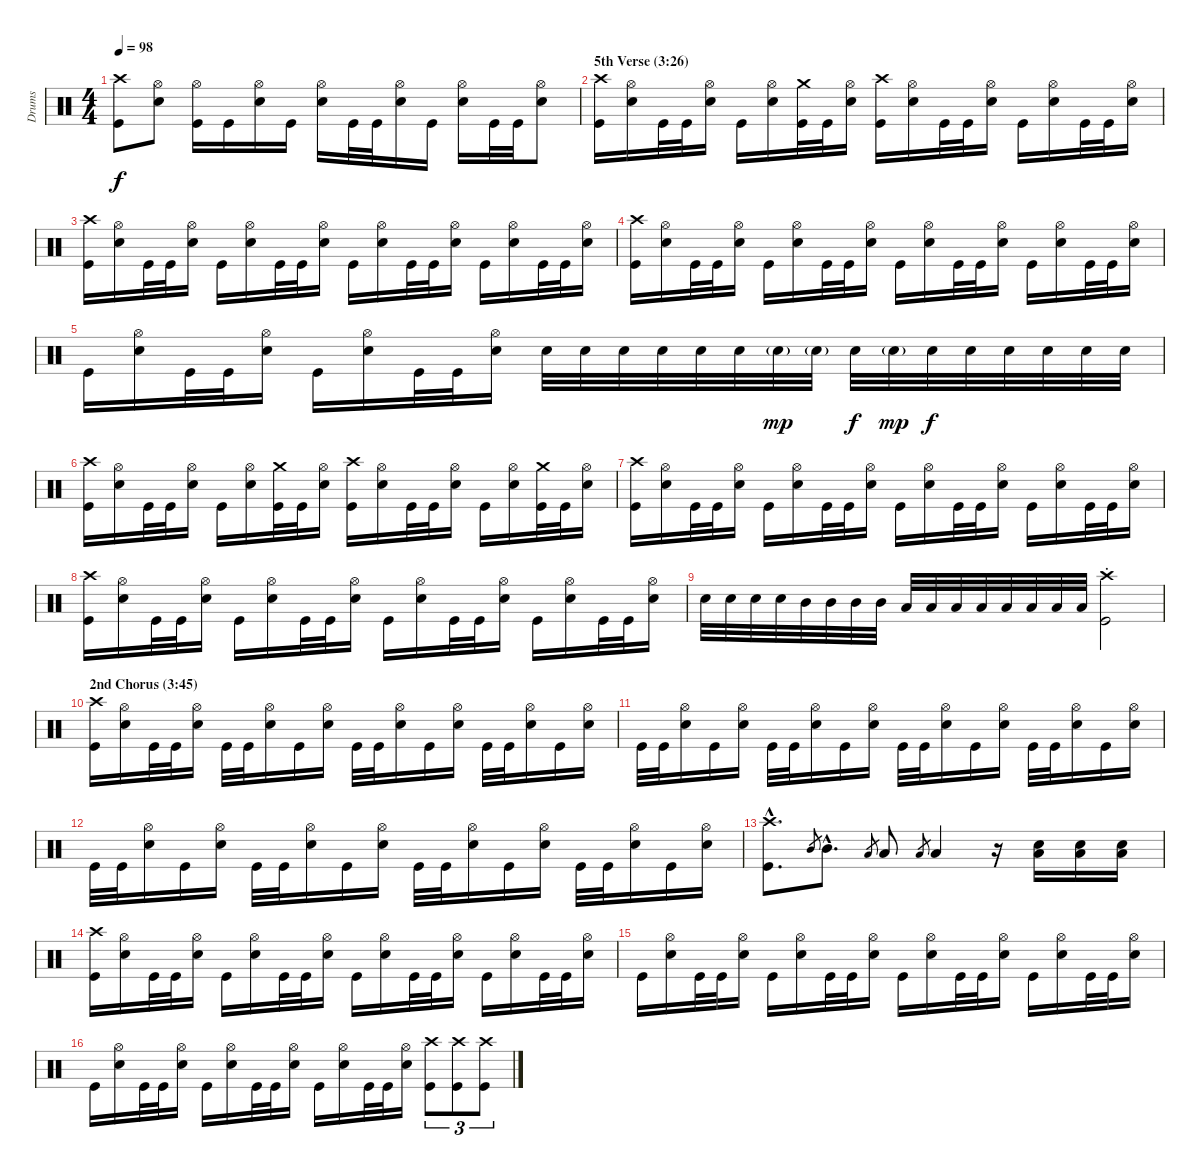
\track ("Drums" "Drums") {instrument percussion}
\staff {score}
\articulation defaults
\ts (4 4)
\tempo 98
\clef neutral
\ks c
("Crash high (hit)" "Kick (hit)").8{dy f} ("Hi-Hat (open)" "Snare (hit) 2").8 ("Hi-Hat (open)" "Kick (hit)").16 "Kick (hit)".16 ("Hi-Hat (open)" "Snare (hit) 2").16 "Kick (hit)".16 ("Hi-Hat (open)" "Snare (hit) 2").16 "Kick (hit)".32 "Kick (hit)".32 ("Hi-Hat (open)" "Snare (hit) 2").16 "Kick (hit)".16 ("Hi-Hat (open)" "Snare (hit) 2").16 "Kick (hit)".32 "Kick (hit)".32 ("Hi-Hat (open)" "Snare (hit) 2").8 |
\section ("" "5th Verse (3:26)")
("Crash high (hit)" "Kick (hit)").16 ("Hi-Hat (open)" "Snare (hit) 2").16 "Kick (hit)".32 "Kick (hit)".32 ("Hi-Hat (open)" "Snare (hit) 2").16 "Kick (hit)".16 ("Hi-Hat (open)" "Snare (hit) 2").16 ("Crash medium (hit)" "Kick (hit)").32 "Kick (hit)".32 ("Hi-Hat (open)" "Snare (hit) 2").16 ("Crash high (hit)" "Kick (hit)").16 ("Hi-Hat (open)" "Snare (hit) 2").16 "Kick (hit)".32 "Kick (hit)".32 ("Hi-Hat (open)" "Snare (hit) 2").16 "Kick (hit)".16 ("Hi-Hat (open)" "Snare (hit) 2").16 "Kick (hit)".32 "Kick (hit)".32 ("Hi-Hat (open)" "Snare (hit) 2").16 |
("Crash high (hit)" "Kick (hit)").16 ("Hi-Hat (open)" "Snare (hit) 2").16 "Kick (hit)".32 "Kick (hit)".32 ("Hi-Hat (open)" "Snare (hit) 2").16 "Kick (hit)".16 ("Hi-Hat (open)" "Snare (hit) 2").16 "Kick (hit)".32 "Kick (hit)".32 ("Hi-Hat (open)" "Snare (hit) 2").16 "Kick (hit)".16 ("Hi-Hat (open)" "Snare (hit) 2").16 "Kick (hit)".32 "Kick (hit)".32 ("Hi-Hat (open)" "Snare (hit) 2").16 "Kick (hit)".16 ("Hi-Hat (open)" "Snare (hit) 2").16 "Kick (hit)".32 "Kick (hit)".32 ("Hi-Hat (open)" "Snare (hit) 2").16 |
("Crash high (hit)" "Kick (hit)").16 ("Hi-Hat (open)" "Snare (hit) 2").16 "Kick (hit)".32 "Kick (hit)".32 ("Hi-Hat (open)" "Snare (hit) 2").16 "Kick (hit)".16 ("Hi-Hat (open)" "Snare (hit) 2").16 "Kick (hit)".32 "Kick (hit)".32 ("Hi-Hat (open)" "Snare (hit) 2").16 "Kick (hit)".16 ("Hi-Hat (open)" "Snare (hit) 2").16 "Kick (hit)".32 "Kick (hit)".32 ("Hi-Hat (open)" "Snare (hit) 2").16 "Kick (hit)".16 ("Hi-Hat (open)" "Snare (hit) 2").16 "Kick (hit)".32 "Kick (hit)".32 ("Hi-Hat (open)" "Snare (hit) 2").16 |
"Kick (hit)".16 ("Hi-Hat (open)" "Snare (hit) 2").16 "Kick (hit)".32 "Kick (hit)".32 ("Hi-Hat (open)" "Snare (hit) 2").16 "Kick (hit)".16 ("Hi-Hat (open)" "Snare (hit) 2").16 "Kick (hit)".32 "Kick (hit)".32 ("Hi-Hat (open)" "Snare (hit) 2").16 "Snare (hit) 2".32 "Snare (hit) 2".32 "Snare (hit) 2".32 "Snare (hit) 2".32 "Snare (hit) 2".32 "Snare (hit) 2".32 "Snare (hit) 2"{g}.32{dy mp} "Snare (hit) 2"{g}.32 "Snare (hit) 2".32{dy f} "Snare (hit) 2"{g}.32{dy mp} "Snare (hit) 2".32{dy f} "Snare (hit) 2".32 "Snare (hit) 2".32 "Snare (hit) 2".32 "Snare (hit) 2".32 "Snare (hit) 2".32 |
("Crash high (hit)" "Kick (hit)").16 ("Hi-Hat (open)" "Snare (hit) 2").16 "Kick (hit)".32 "Kick (hit)".32 ("Hi-Hat (open)" "Snare (hit) 2").16 "Kick (hit)".16 ("Hi-Hat (open)" "Snare (hit) 2").16 ("Crash medium (hit)" "Kick (hit)").32 "Kick (hit)".32 ("Hi-Hat (open)" "Snare (hit) 2").16 ("Crash high (hit)" "Kick (hit)").16 ("Hi-Hat (open)" "Snare (hit) 2").16 "Kick (hit)".32 "Kick (hit)".32 ("Hi-Hat (open)" "Snare (hit) 2").16 "Kick (hit)".16 ("Hi-Hat (open)" "Snare (hit) 2").16 ("Crash medium (hit)" "Kick (hit)").32 "Kick (hit)".32 ("Hi-Hat (open)" "Snare (hit) 2").16 |
("Crash high (hit)" "Kick (hit)").16 ("Hi-Hat (open)" "Snare (hit) 2").16 "Kick (hit)".32 "Kick (hit)".32 ("Hi-Hat (open)" "Snare (hit) 2").16 "Kick (hit)".16 ("Hi-Hat (open)" "Snare (hit) 2").16 "Kick (hit)".32 "Kick (hit)".32 ("Hi-Hat (open)" "Snare (hit) 2").16 "Kick (hit)".16 ("Hi-Hat (open)" "Snare (hit) 2").16 "Kick (hit)".32 "Kick (hit)".32 ("Hi-Hat (open)" "Snare (hit) 2").16 "Kick (hit)".16 ("Hi-Hat (open)" "Snare (hit) 2").16 "Kick (hit)".32 "Kick (hit)".32 ("Hi-Hat (open)" "Snare (hit) 2").16 |
("Crash high (hit)" "Kick (hit)").16 ("Hi-Hat (open)" "Snare (hit) 2").16 "Kick (hit)".32 "Kick (hit)".32 ("Hi-Hat (open)" "Snare (hit) 2").16 "Kick (hit)".16 ("Hi-Hat (open)" "Snare (hit) 2").16 "Kick (hit)".32 "Kick (hit)".32 ("Hi-Hat (open)" "Snare (hit) 2").16 "Kick (hit)".16 ("Hi-Hat (open)" "Snare (hit) 2").16 "Kick (hit)".32 "Kick (hit)".32 ("Hi-Hat (open)" "Snare (hit) 2").16 "Kick (hit)".16 ("Hi-Hat (open)" "Snare (hit) 2").16 "Kick (hit)".32 "Kick (hit)".32 ("Hi-Hat (open)" "Snare (hit) 2").16 |
"Snare (hit) 2".32 "Snare (hit) 2".32 "Snare (hit) 2".32 "Snare (hit) 2".32 "Mid Tom (hit)".32 "Mid Tom (hit)".32 "Mid Tom (hit)".32 "Mid Tom (hit)".32 "Low Tom (hit)".32 "Low Tom (hit)".32 "Low Tom (hit)".32 "Low Tom (hit)".32 "Low Floor Tom (hit)".32 "Low Floor Tom (hit)".32 "Low Floor Tom (hit)".32 "Low Floor Tom (hit)".32 ("Crash high (hit)"{st} "Kick (hit)").2 |
\section ("" "2nd Chorus (3:45)")
("Crash high (hit)" "Kick (hit)").16 ("Hi-Hat (open)" "Snare (hit) 2").16 "Kick (hit)".32 "Kick (hit)".32 ("Hi-Hat (open)" "Snare (hit) 2").16 "Kick (hit)".32 "Kick (hit)".32 ("Hi-Hat (open)" "Snare (hit) 2").16 "Kick (hit)".16 ("Hi-Hat (open)" "Snare (hit) 2").16 "Kick (hit)".32 "Kick (hit)".32 ("Hi-Hat (open)" "Snare (hit) 2").16 "Kick (hit)".16 ("Hi-Hat (open)" "Snare (hit) 2").16 "Kick (hit)".32 "Kick (hit)".32 ("Hi-Hat (open)" "Snare (hit) 2").16 "Kick (hit)".16 ("Hi-Hat (open)" "Snare (hit) 2").16 |
"Kick (hit)".32 "Kick (hit)".32 ("Hi-Hat (open)" "Snare (hit) 2").16 "Kick (hit)".16 ("Hi-Hat (open)" "Snare (hit) 2").16 "Kick (hit)".32 "Kick (hit)".32 ("Hi-Hat (open)" "Snare (hit) 2").16 "Kick (hit)".16 ("Hi-Hat (open)" "Snare (hit) 2").16 "Kick (hit)".32 "Kick (hit)".32 ("Hi-Hat (open)" "Snare (hit) 2").16 "Kick (hit)".16 ("Hi-Hat (open)" "Snare (hit) 2").16 "Kick (hit)".32 "Kick (hit)".32 ("Hi-Hat (open)" "Snare (hit) 2").16 "Kick (hit)".16 ("Hi-Hat (open)" "Snare (hit) 2").16 |
"Kick (hit)".32 "Kick (hit)".32 ("Hi-Hat (open)" "Snare (hit) 2").16 "Kick (hit)".16 ("Hi-Hat (open)" "Snare (hit) 2").16 "Kick (hit)".32 "Kick (hit)".32 ("Hi-Hat (open)" "Snare (hit) 2").16 "Kick (hit)".16 ("Hi-Hat (open)" "Snare (hit) 2").16 "Kick (hit)".32 "Kick (hit)".32 ("Hi-Hat (open)" "Snare (hit) 2").16 "Kick (hit)".16 ("Hi-Hat (open)" "Snare (hit) 2").16 "Kick (hit)".32 "Kick (hit)".32 ("Hi-Hat (open)" "Snare (hit) 2").16 "Kick (hit)".16 ("Hi-Hat (open)" "Snare (hit) 2").16 |
("Crash high (hit)"{hac} "Kick (hit)"{hac}).8{d} "Mid Tom (hit)".8{gr} "Mid Tom (hit)"{hac}.8{d} "Low Tom (hit)".8{gr} "Low Tom (hit)".8 "Low Floor Tom (hit)".8{gr} "Low Floor Tom (hit)".4 r.16 ("Snare (hit) 2" "Low Floor Tom (hit)").16 ("Snare (hit) 2" "Low Floor Tom (hit)").16 ("Snare (hit) 2" "Low Floor Tom (hit)").16 |
("Crash high (hit)" "Kick (hit)").16 ("Hi-Hat (open)" "Snare (hit) 2").16 "Kick (hit)".32 "Kick (hit)".32 ("Hi-Hat (open)" "Snare (hit) 2").16 "Kick (hit)".16 ("Hi-Hat (open)" "Snare (hit) 2").16 "Kick (hit)".32 "Kick (hit)".32 ("Hi-Hat (open)" "Snare (hit) 2").16 "Kick (hit)".16 ("Hi-Hat (open)" "Snare (hit) 2").16 "Kick (hit)".32 "Kick (hit)".32 ("Hi-Hat (open)" "Snare (hit) 2").16 "Kick (hit)".16 ("Hi-Hat (open)" "Snare (hit) 2").16 "Kick (hit)".32 "Kick (hit)".32 ("Hi-Hat (open)" "Snare (hit) 2").16 |
"Kick (hit)".16 ("Hi-Hat (open)" "Snare (hit) 2").16 "Kick (hit)".32 "Kick (hit)".32 ("Hi-Hat (open)" "Snare (hit) 2").16 "Kick (hit)".16 ("Hi-Hat (open)" "Snare (hit) 2").16 "Kick (hit)".32 "Kick (hit)".32 ("Hi-Hat (open)" "Snare (hit) 2").16 "Kick (hit)".16 ("Hi-Hat (open)" "Snare (hit) 2").16 "Kick (hit)".32 "Kick (hit)".32 ("Hi-Hat (open)" "Snare (hit) 2").16 "Kick (hit)".16 ("Hi-Hat (open)" "Snare (hit) 2").16 "Kick (hit)".32 "Kick (hit)".32 ("Hi-Hat (open)" "Snare (hit) 2").16 |
"Kick (hit)".16 ("Hi-Hat (open)" "Snare (hit) 2").16 "Kick (hit)".32 "Kick (hit)".32 ("Hi-Hat (open)" "Snare (hit) 2").16 "Kick (hit)".16 ("Hi-Hat (open)" "Snare (hit) 2").16 "Kick (hit)".32 "Kick (hit)".32 ("Hi-Hat (open)" "Snare (hit) 2").16 "Kick (hit)".16 ("Hi-Hat (open)" "Snare (hit) 2").16 "Kick (hit)".32 "Kick (hit)".32 ("Hi-Hat (open)" "Snare (hit) 2").16 ("Crash high (hit)" "Kick (hit)").8{tu (3 2)} ("Crash high (hit)" "Kick (hit)").8{tu (3 2)} ("Crash high (hit)" "Kick (hit)").8{tu (3 2)}
